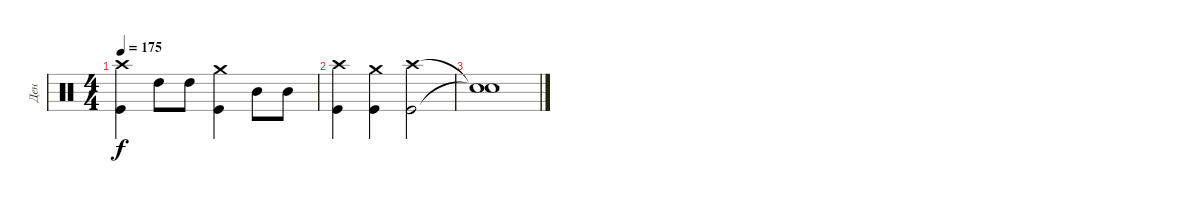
\track ("Ден" "Ден") {instrument percussion}
\staff {score}
\articulation defaults
\ts (4 4)
\tempo 175
\clef neutral
\ks c
("Crash high (hit)" "Kick (hit)").4{dy f} "High Tom (hit)".8 "High Tom (hit)".8 ("Crash medium (hit)" "Kick (hit)").4 "Mid Tom (hit)".8 "Mid Tom (hit)".8 |
("Crash high (hit)" "Kick (hit)").4 ("Crash medium (hit)" "Kick (hit)").4 ("Crash high (hit)" "Kick (hit)").2 |
("Snare (hit)"{t} "Snare (hit)"{t}).1
